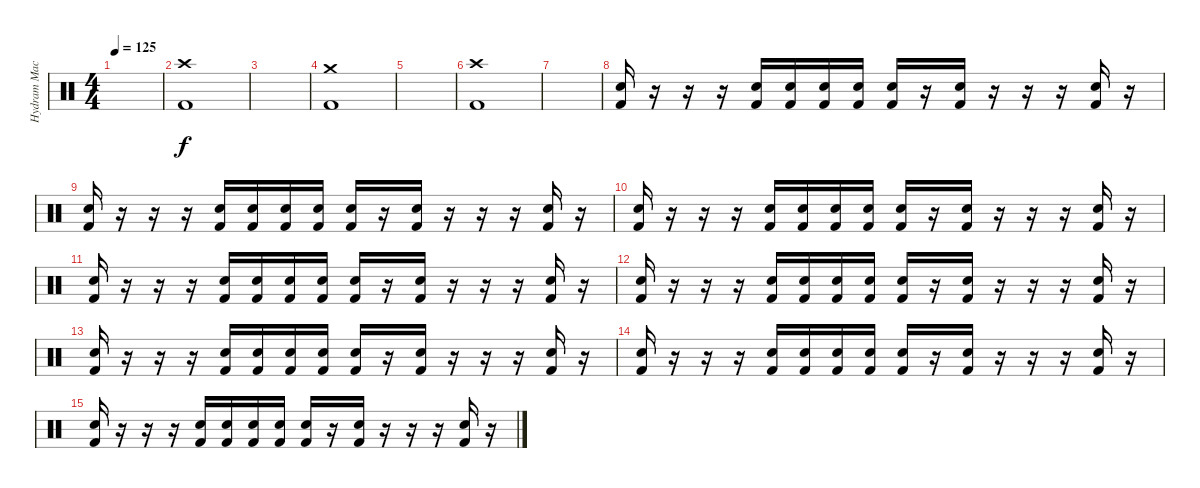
\track ("Hydram Machine" "Hydram Mac") {instrument percussion}
\staff {score}
\articulation defaults
\ts (4 4)
\tempo 125
\clef neutral
\ks c
|
("Crash high (hit)" "Kick (hit) 2").1 |
|
("Crash medium (hit)" "Kick (hit) 2").1 |
|
("Crash high (hit)" "Kick (hit) 2").1 |
|
("Electric Snare (hit)" "Kick (hit) 2").16 r.16 r.16 r.16 ("Electric Snare (hit)" "Kick (hit) 2").16 ("Electric Snare (hit)" "Kick (hit) 2").16 ("Electric Snare (hit)" "Kick (hit) 2").16 ("Electric Snare (hit)" "Kick (hit) 2").16 ("Electric Snare (hit)" "Kick (hit) 2").16 r.16 ("Electric Snare (hit)" "Kick (hit) 2").16 r.16 r.16 r.16 ("Electric Snare (hit)" "Kick (hit) 2").16 r.16 |
("Electric Snare (hit)" "Kick (hit) 2").16 r.16 r.16 r.16 ("Electric Snare (hit)" "Kick (hit) 2").16 ("Electric Snare (hit)" "Kick (hit) 2").16 ("Electric Snare (hit)" "Kick (hit) 2").16 ("Electric Snare (hit)" "Kick (hit) 2").16 ("Electric Snare (hit)" "Kick (hit) 2").16 r.16 ("Electric Snare (hit)" "Kick (hit) 2").16 r.16 r.16 r.16 ("Electric Snare (hit)" "Kick (hit) 2").16 r.16 |
("Electric Snare (hit)" "Kick (hit) 2").16 r.16 r.16 r.16 ("Electric Snare (hit)" "Kick (hit) 2").16 ("Electric Snare (hit)" "Kick (hit) 2").16 ("Electric Snare (hit)" "Kick (hit) 2").16 ("Electric Snare (hit)" "Kick (hit) 2").16 ("Electric Snare (hit)" "Kick (hit) 2").16 r.16 ("Electric Snare (hit)" "Kick (hit) 2").16 r.16 r.16 r.16 ("Electric Snare (hit)" "Kick (hit) 2").16 r.16 |
("Electric Snare (hit)" "Kick (hit) 2").16 r.16 r.16 r.16 ("Electric Snare (hit)" "Kick (hit) 2").16 ("Electric Snare (hit)" "Kick (hit) 2").16 ("Electric Snare (hit)" "Kick (hit) 2").16 ("Electric Snare (hit)" "Kick (hit) 2").16 ("Electric Snare (hit)" "Kick (hit) 2").16 r.16 ("Electric Snare (hit)" "Kick (hit) 2").16 r.16 r.16 r.16 ("Electric Snare (hit)" "Kick (hit) 2").16 r.16 |
("Electric Snare (hit)" "Kick (hit) 2").16 r.16 r.16 r.16 ("Electric Snare (hit)" "Kick (hit) 2").16 ("Electric Snare (hit)" "Kick (hit) 2").16 ("Electric Snare (hit)" "Kick (hit) 2").16 ("Electric Snare (hit)" "Kick (hit) 2").16 ("Electric Snare (hit)" "Kick (hit) 2").16 r.16 ("Electric Snare (hit)" "Kick (hit) 2").16 r.16 r.16 r.16 ("Electric Snare (hit)" "Kick (hit) 2").16 r.16 |
("Electric Snare (hit)" "Kick (hit) 2").16 r.16 r.16 r.16 ("Electric Snare (hit)" "Kick (hit) 2").16 ("Electric Snare (hit)" "Kick (hit) 2").16 ("Electric Snare (hit)" "Kick (hit) 2").16 ("Electric Snare (hit)" "Kick (hit) 2").16 ("Electric Snare (hit)" "Kick (hit) 2").16 r.16 ("Electric Snare (hit)" "Kick (hit) 2").16 r.16 r.16 r.16 ("Electric Snare (hit)" "Kick (hit) 2").16 r.16 |
("Electric Snare (hit)" "Kick (hit) 2").16 r.16 r.16 r.16 ("Electric Snare (hit)" "Kick (hit) 2").16 ("Electric Snare (hit)" "Kick (hit) 2").16 ("Electric Snare (hit)" "Kick (hit) 2").16 ("Electric Snare (hit)" "Kick (hit) 2").16 ("Electric Snare (hit)" "Kick (hit) 2").16 r.16 ("Electric Snare (hit)" "Kick (hit) 2").16 r.16 r.16 r.16 ("Electric Snare (hit)" "Kick (hit) 2").16 r.16 |
("Electric Snare (hit)" "Kick (hit) 2").16 r.16 r.16 r.16 ("Electric Snare (hit)" "Kick (hit) 2").16 ("Electric Snare (hit)" "Kick (hit) 2").16 ("Electric Snare (hit)" "Kick (hit) 2").16 ("Electric Snare (hit)" "Kick (hit) 2").16 ("Electric Snare (hit)" "Kick (hit) 2").16 r.16 ("Electric Snare (hit)" "Kick (hit) 2").16 r.16 r.16 r.16 ("Electric Snare (hit)" "Kick (hit) 2").16 r.16
